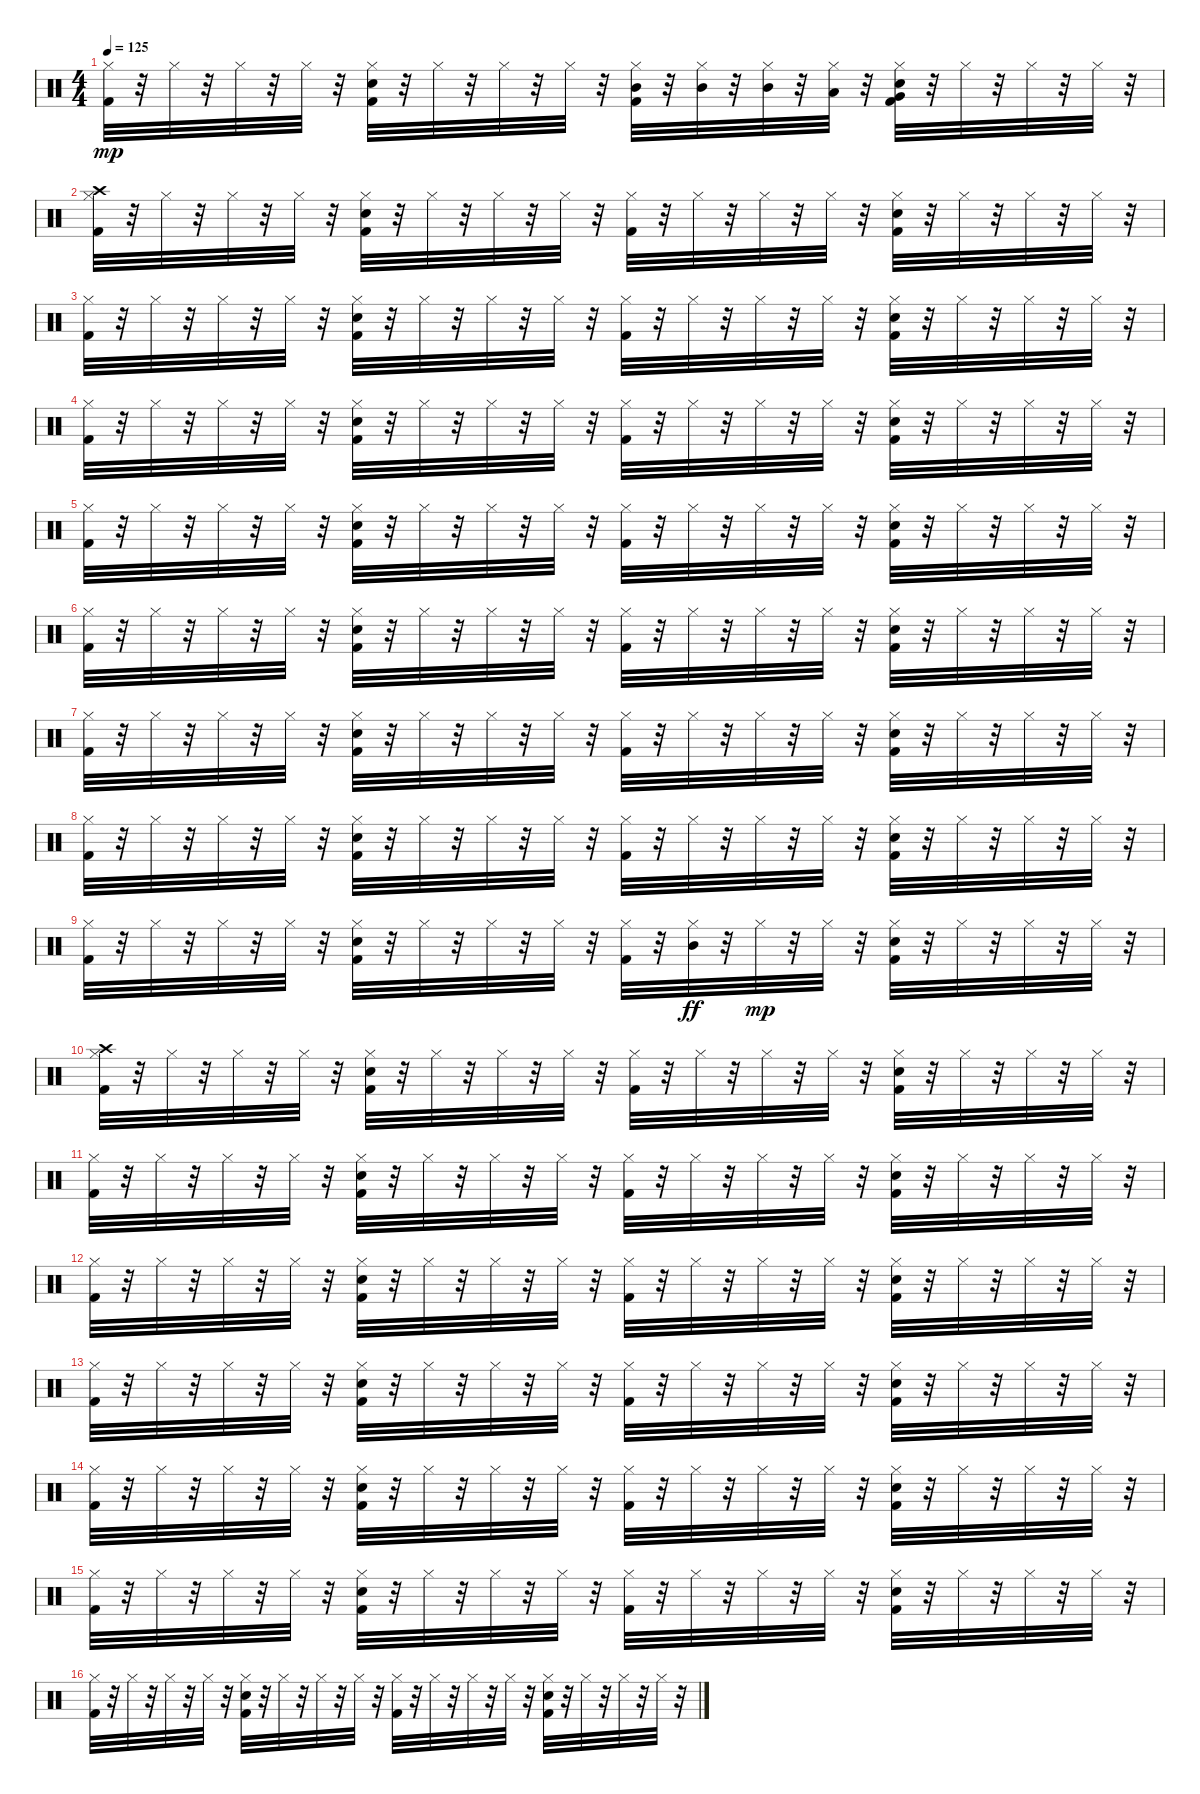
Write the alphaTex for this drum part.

\track "" {instrument percussion}
\staff {score}
\articulation defaults
\ts (4 4)
\tempo 125
\clef neutral
\ks c
("Kick (hit) 2" "Hi-Hat (closed)").32{dy mp} r.32 "Hi-Hat (closed)".32 r.32 "Hi-Hat (closed)".32 r.32 "Hi-Hat (closed)".32 r.32 ("Kick (hit) 2" "Snare (hit) 2" "Hi-Hat (closed)").32 r.32 "Hi-Hat (closed)".32 r.32 "Hi-Hat (closed)".32 r.32 "Hi-Hat (closed)".32 r.32 ("Mid Tom (hit)" "Kick (hit) 2" "Hi-Hat (closed)").32 r.32 ("Mid Tom (hit)" "Hi-Hat (closed)").32 r.32 ("Mid Tom (hit)" "Hi-Hat (closed)").32 r.32 ("Low Tom (hit)" "Hi-Hat (closed)").32 r.32 ("Very Low Tom (hit)" "Kick (hit) 2" "Snare (hit) 2" "Hi-Hat (closed)").32 r.32 "Hi-Hat (closed)".32 r.32 "Hi-Hat (closed)".32 r.32 "Hi-Hat (closed)".32 r.32 |
("Crash high (hit)" "Kick (hit) 2" "Hi-Hat (closed)").32 r.32 "Hi-Hat (closed)".32 r.32 "Hi-Hat (closed)".32 r.32 "Hi-Hat (closed)".32 r.32 ("Kick (hit) 2" "Snare (hit) 2" "Hi-Hat (closed)").32 r.32 "Hi-Hat (closed)".32 r.32 "Hi-Hat (closed)".32 r.32 "Hi-Hat (closed)".32 r.32 ("Kick (hit) 2" "Hi-Hat (closed)").32 r.32 "Hi-Hat (closed)".32 r.32 "Hi-Hat (closed)".32 r.32 "Hi-Hat (closed)".32 r.32 ("Kick (hit) 2" "Snare (hit) 2" "Hi-Hat (closed)").32 r.32 "Hi-Hat (closed)".32 r.32 "Hi-Hat (closed)".32 r.32 "Hi-Hat (closed)".32 r.32 |
("Kick (hit) 2" "Hi-Hat (closed)").32 r.32 "Hi-Hat (closed)".32 r.32 "Hi-Hat (closed)".32 r.32 "Hi-Hat (closed)".32 r.32 ("Kick (hit) 2" "Snare (hit) 2" "Hi-Hat (closed)").32 r.32 "Hi-Hat (closed)".32 r.32 "Hi-Hat (closed)".32 r.32 "Hi-Hat (closed)".32 r.32 ("Kick (hit) 2" "Hi-Hat (closed)").32 r.32 "Hi-Hat (closed)".32 r.32 "Hi-Hat (closed)".32 r.32 "Hi-Hat (closed)".32 r.32 ("Kick (hit) 2" "Snare (hit) 2" "Hi-Hat (closed)").32 r.32 "Hi-Hat (closed)".32 r.32 "Hi-Hat (closed)".32 r.32 "Hi-Hat (closed)".32 r.32 |
("Kick (hit) 2" "Hi-Hat (closed)").32 r.32 "Hi-Hat (closed)".32 r.32 "Hi-Hat (closed)".32 r.32 "Hi-Hat (closed)".32 r.32 ("Kick (hit) 2" "Snare (hit) 2" "Hi-Hat (closed)").32 r.32 "Hi-Hat (closed)".32 r.32 "Hi-Hat (closed)".32 r.32 "Hi-Hat (closed)".32 r.32 ("Kick (hit) 2" "Hi-Hat (closed)").32 r.32 "Hi-Hat (closed)".32 r.32 "Hi-Hat (closed)".32 r.32 "Hi-Hat (closed)".32 r.32 ("Kick (hit) 2" "Snare (hit) 2" "Hi-Hat (closed)").32 r.32 "Hi-Hat (closed)".32 r.32 "Hi-Hat (closed)".32 r.32 "Hi-Hat (closed)".32 r.32 |
("Kick (hit) 2" "Hi-Hat (closed)").32 r.32 "Hi-Hat (closed)".32 r.32 "Hi-Hat (closed)".32 r.32 "Hi-Hat (closed)".32 r.32 ("Kick (hit) 2" "Snare (hit) 2" "Hi-Hat (closed)").32 r.32 "Hi-Hat (closed)".32 r.32 "Hi-Hat (closed)".32 r.32 "Hi-Hat (closed)".32 r.32 ("Kick (hit) 2" "Hi-Hat (closed)").32 r.32 "Hi-Hat (closed)".32 r.32 "Hi-Hat (closed)".32 r.32 "Hi-Hat (closed)".32 r.32 ("Kick (hit) 2" "Snare (hit) 2" "Hi-Hat (closed)").32 r.32 "Hi-Hat (closed)".32 r.32 "Hi-Hat (closed)".32 r.32 "Hi-Hat (closed)".32 r.32 |
("Kick (hit) 2" "Hi-Hat (closed)").32 r.32 "Hi-Hat (closed)".32 r.32 "Hi-Hat (closed)".32 r.32 "Hi-Hat (closed)".32 r.32 ("Kick (hit) 2" "Snare (hit) 2" "Hi-Hat (closed)").32 r.32 "Hi-Hat (closed)".32 r.32 "Hi-Hat (closed)".32 r.32 "Hi-Hat (closed)".32 r.32 ("Kick (hit) 2" "Hi-Hat (closed)").32 r.32 "Hi-Hat (closed)".32 r.32 "Hi-Hat (closed)".32 r.32 "Hi-Hat (closed)".32 r.32 ("Kick (hit) 2" "Snare (hit) 2" "Hi-Hat (closed)").32 r.32 "Hi-Hat (closed)".32 r.32 "Hi-Hat (closed)".32 r.32 "Hi-Hat (closed)".32 r.32 |
("Kick (hit) 2" "Hi-Hat (closed)").32 r.32 "Hi-Hat (closed)".32 r.32 "Hi-Hat (closed)".32 r.32 "Hi-Hat (closed)".32 r.32 ("Kick (hit) 2" "Snare (hit) 2" "Hi-Hat (closed)").32 r.32 "Hi-Hat (closed)".32 r.32 "Hi-Hat (closed)".32 r.32 "Hi-Hat (closed)".32 r.32 ("Kick (hit) 2" "Hi-Hat (closed)").32 r.32 "Hi-Hat (closed)".32 r.32 "Hi-Hat (closed)".32 r.32 "Hi-Hat (closed)".32 r.32 ("Kick (hit) 2" "Snare (hit) 2" "Hi-Hat (closed)").32 r.32 "Hi-Hat (closed)".32 r.32 "Hi-Hat (closed)".32 r.32 "Hi-Hat (closed)".32 r.32 |
("Kick (hit) 2" "Hi-Hat (closed)").32 r.32 "Hi-Hat (closed)".32 r.32 "Hi-Hat (closed)".32 r.32 "Hi-Hat (closed)".32 r.32 ("Kick (hit) 2" "Snare (hit) 2" "Hi-Hat (closed)").32 r.32 "Hi-Hat (closed)".32 r.32 "Hi-Hat (closed)".32 r.32 "Hi-Hat (closed)".32 r.32 ("Kick (hit) 2" "Hi-Hat (closed)").32 r.32 "Hi-Hat (closed)".32 r.32 "Hi-Hat (closed)".32 r.32 "Hi-Hat (closed)".32 r.32 ("Kick (hit) 2" "Snare (hit) 2" "Hi-Hat (closed)").32 r.32 "Hi-Hat (closed)".32 r.32 "Hi-Hat (closed)".32 r.32 "Hi-Hat (closed)".32 r.32 |
("Kick (hit) 2" "Hi-Hat (closed)").32 r.32 "Hi-Hat (closed)".32 r.32 "Hi-Hat (closed)".32 r.32 "Hi-Hat (closed)".32 r.32 ("Kick (hit) 2" "Snare (hit) 2" "Hi-Hat (closed)").32 r.32 "Hi-Hat (closed)".32 r.32 "Hi-Hat (closed)".32 r.32 "Hi-Hat (closed)".32 r.32 ("Kick (hit) 2" "Hi-Hat (closed)").32 r.32 ("Hi-Hat (closed)" "Mid Tom (hit)").32{dy ff} r.32 "Hi-Hat (closed)".32{dy mp} r.32 "Hi-Hat (closed)".32 r.32 ("Kick (hit) 2" "Snare (hit) 2" "Hi-Hat (closed)").32 r.32 "Hi-Hat (closed)".32 r.32 "Hi-Hat (closed)".32 r.32 "Hi-Hat (closed)".32 r.32 |
("Crash high (hit)" "Kick (hit) 2" "Hi-Hat (closed)").32 r.32 "Hi-Hat (closed)".32 r.32 "Hi-Hat (closed)".32 r.32 "Hi-Hat (closed)".32 r.32 ("Kick (hit) 2" "Snare (hit) 2" "Hi-Hat (closed)").32 r.32 "Hi-Hat (closed)".32 r.32 "Hi-Hat (closed)".32 r.32 "Hi-Hat (closed)".32 r.32 ("Kick (hit) 2" "Hi-Hat (closed)").32 r.32 "Hi-Hat (closed)".32 r.32 "Hi-Hat (closed)".32 r.32 "Hi-Hat (closed)".32 r.32 ("Kick (hit) 2" "Snare (hit) 2" "Hi-Hat (closed)").32 r.32 "Hi-Hat (closed)".32 r.32 "Hi-Hat (closed)".32 r.32 "Hi-Hat (closed)".32 r.32 |
("Kick (hit) 2" "Hi-Hat (closed)").32 r.32 "Hi-Hat (closed)".32 r.32 "Hi-Hat (closed)".32 r.32 "Hi-Hat (closed)".32 r.32 ("Kick (hit) 2" "Snare (hit) 2" "Hi-Hat (closed)").32 r.32 "Hi-Hat (closed)".32 r.32 "Hi-Hat (closed)".32 r.32 "Hi-Hat (closed)".32 r.32 ("Kick (hit) 2" "Hi-Hat (closed)").32 r.32 "Hi-Hat (closed)".32 r.32 "Hi-Hat (closed)".32 r.32 "Hi-Hat (closed)".32 r.32 ("Kick (hit) 2" "Snare (hit) 2" "Hi-Hat (closed)").32 r.32 "Hi-Hat (closed)".32 r.32 "Hi-Hat (closed)".32 r.32 "Hi-Hat (closed)".32 r.32 |
("Kick (hit) 2" "Hi-Hat (closed)").32 r.32 "Hi-Hat (closed)".32 r.32 "Hi-Hat (closed)".32 r.32 "Hi-Hat (closed)".32 r.32 ("Kick (hit) 2" "Snare (hit) 2" "Hi-Hat (closed)").32 r.32 "Hi-Hat (closed)".32 r.32 "Hi-Hat (closed)".32 r.32 "Hi-Hat (closed)".32 r.32 ("Kick (hit) 2" "Hi-Hat (closed)").32 r.32 "Hi-Hat (closed)".32 r.32 "Hi-Hat (closed)".32 r.32 "Hi-Hat (closed)".32 r.32 ("Kick (hit) 2" "Snare (hit) 2" "Hi-Hat (closed)").32 r.32 "Hi-Hat (closed)".32 r.32 "Hi-Hat (closed)".32 r.32 "Hi-Hat (closed)".32 r.32 |
("Kick (hit) 2" "Hi-Hat (closed)").32 r.32 "Hi-Hat (closed)".32 r.32 "Hi-Hat (closed)".32 r.32 "Hi-Hat (closed)".32 r.32 ("Kick (hit) 2" "Snare (hit) 2" "Hi-Hat (closed)").32 r.32 "Hi-Hat (closed)".32 r.32 "Hi-Hat (closed)".32 r.32 "Hi-Hat (closed)".32 r.32 ("Kick (hit) 2" "Hi-Hat (closed)").32 r.32 "Hi-Hat (closed)".32 r.32 "Hi-Hat (closed)".32 r.32 "Hi-Hat (closed)".32 r.32 ("Kick (hit) 2" "Snare (hit) 2" "Hi-Hat (closed)").32 r.32 "Hi-Hat (closed)".32 r.32 "Hi-Hat (closed)".32 r.32 "Hi-Hat (closed)".32 r.32 |
("Kick (hit) 2" "Hi-Hat (closed)").32 r.32 "Hi-Hat (closed)".32 r.32 "Hi-Hat (closed)".32 r.32 "Hi-Hat (closed)".32 r.32 ("Kick (hit) 2" "Snare (hit) 2" "Hi-Hat (closed)").32 r.32 "Hi-Hat (closed)".32 r.32 "Hi-Hat (closed)".32 r.32 "Hi-Hat (closed)".32 r.32 ("Kick (hit) 2" "Hi-Hat (closed)").32 r.32 "Hi-Hat (closed)".32 r.32 "Hi-Hat (closed)".32 r.32 "Hi-Hat (closed)".32 r.32 ("Kick (hit) 2" "Snare (hit) 2" "Hi-Hat (closed)").32 r.32 "Hi-Hat (closed)".32 r.32 "Hi-Hat (closed)".32 r.32 "Hi-Hat (closed)".32 r.32 |
("Kick (hit) 2" "Hi-Hat (closed)").32 r.32 "Hi-Hat (closed)".32 r.32 "Hi-Hat (closed)".32 r.32 "Hi-Hat (closed)".32 r.32 ("Kick (hit) 2" "Snare (hit) 2" "Hi-Hat (closed)").32 r.32 "Hi-Hat (closed)".32 r.32 "Hi-Hat (closed)".32 r.32 "Hi-Hat (closed)".32 r.32 ("Kick (hit) 2" "Hi-Hat (closed)").32 r.32 "Hi-Hat (closed)".32 r.32 "Hi-Hat (closed)".32 r.32 "Hi-Hat (closed)".32 r.32 ("Kick (hit) 2" "Snare (hit) 2" "Hi-Hat (closed)").32 r.32 "Hi-Hat (closed)".32 r.32 "Hi-Hat (closed)".32 r.32 "Hi-Hat (closed)".32 r.32 |
("Kick (hit) 2" "Hi-Hat (closed)").32 r.32 "Hi-Hat (closed)".32 r.32 "Hi-Hat (closed)".32 r.32 "Hi-Hat (closed)".32 r.32 ("Kick (hit) 2" "Snare (hit) 2" "Hi-Hat (closed)").32 r.32 "Hi-Hat (closed)".32 r.32 "Hi-Hat (closed)".32 r.32 "Hi-Hat (closed)".32 r.32 ("Kick (hit) 2" "Hi-Hat (closed)").32 r.32 "Hi-Hat (closed)".32 r.32 "Hi-Hat (closed)".32 r.32 "Hi-Hat (closed)".32 r.32 ("Kick (hit) 2" "Snare (hit) 2" "Hi-Hat (closed)").32 r.32 "Hi-Hat (closed)".32 r.32 "Hi-Hat (closed)".32 r.32 "Hi-Hat (closed)".32 r.32
